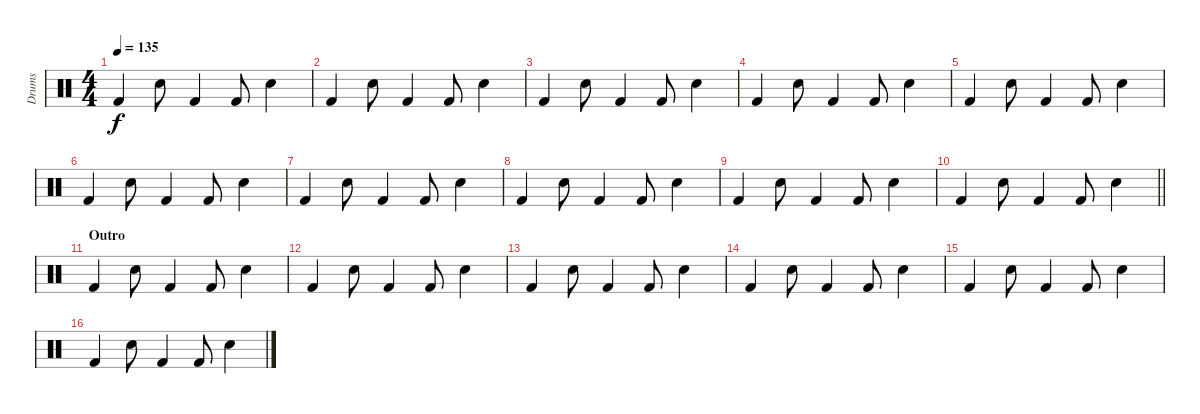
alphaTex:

\track ("Drums" "Drums") {instrument percussion}
\staff {score}
\articulation defaults
\ts (4 4)
\tempo 135
\clef neutral
\ks c "Kick (hit) 2".4{dy f} "Electric Snare (hit)".8 "Kick (hit) 2".4 "Kick (hit) 2".8 "Electric Snare (hit)".4
|
"Kick (hit) 2".4 "Electric Snare (hit)".8 "Kick (hit) 2".4 "Kick (hit) 2".8 "Electric Snare (hit)".4 |
"Kick (hit) 2".4 "Electric Snare (hit)".8 "Kick (hit) 2".4 "Kick (hit) 2".8 "Electric Snare (hit)".4 |
"Kick (hit) 2".4 "Electric Snare (hit)".8 "Kick (hit) 2".4 "Kick (hit) 2".8 "Electric Snare (hit)".4 |
"Kick (hit) 2".4 "Electric Snare (hit)".8 "Kick (hit) 2".4 "Kick (hit) 2".8 "Electric Snare (hit)".4 |
"Kick (hit) 2".4 "Electric Snare (hit)".8 "Kick (hit) 2".4 "Kick (hit) 2".8 "Electric Snare (hit)".4 |
"Kick (hit) 2".4 "Electric Snare (hit)".8 "Kick (hit) 2".4 "Kick (hit) 2".8 "Electric Snare (hit)".4 |
"Kick (hit) 2".4 "Electric Snare (hit)".8 "Kick (hit) 2".4 "Kick (hit) 2".8 "Electric Snare (hit)".4 |
"Kick (hit) 2".4 "Electric Snare (hit)".8 "Kick (hit) 2".4 "Kick (hit) 2".8 "Electric Snare (hit)".4 |
\barLineRight lightlight "Kick (hit) 2".4 "Electric Snare (hit)".8 "Kick (hit) 2".4 "Kick (hit) 2".8 "Electric Snare (hit)".4
|
\section ("" "Outro")
"Kick (hit) 2".4 "Electric Snare (hit)".8 "Kick (hit) 2".4 "Kick (hit) 2".8 "Electric Snare (hit)".4 |
"Kick (hit) 2".4 "Electric Snare (hit)".8 "Kick (hit) 2".4 "Kick (hit) 2".8 "Electric Snare (hit)".4 |
"Kick (hit) 2".4 "Electric Snare (hit)".8 "Kick (hit) 2".4 "Kick (hit) 2".8 "Electric Snare (hit)".4 |
"Kick (hit) 2".4 "Electric Snare (hit)".8 "Kick (hit) 2".4 "Kick (hit) 2".8 "Electric Snare (hit)".4 |
"Kick (hit) 2".4 "Electric Snare (hit)".8 "Kick (hit) 2".4 "Kick (hit) 2".8 "Electric Snare (hit)".4 |
"Kick (hit) 2".4 "Electric Snare (hit)".8 "Kick (hit) 2".4 "Kick (hit) 2".8 "Electric Snare (hit)".4
